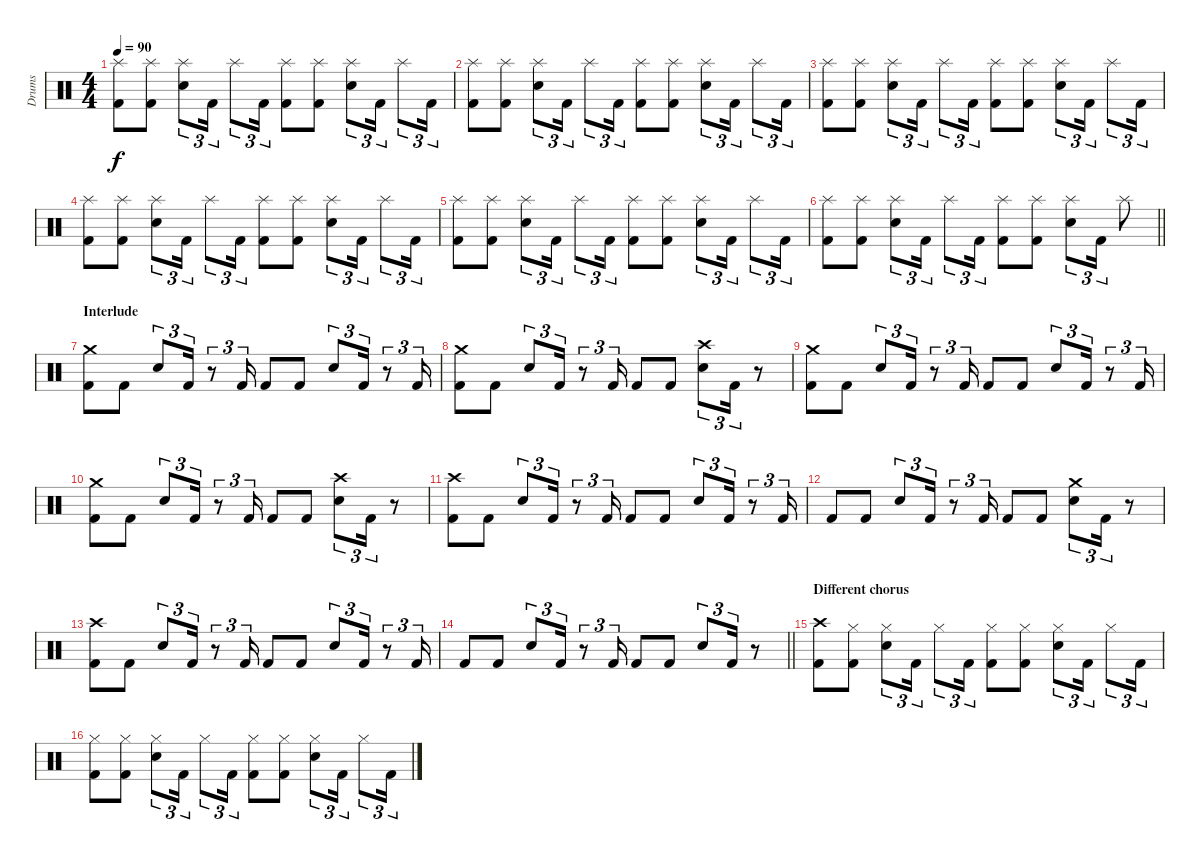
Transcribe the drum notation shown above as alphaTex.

\track ("Drums" "Drums") {instrument percussion}
\staff {score}
\articulation defaults
\ts (4 4)
\tempo 90
\clef neutral
\ks c
("Splash (hit)" "Kick (hit) 2").8{dy f} ("Splash (hit)" "Kick (hit) 2").8 ("Splash (hit)" "Electric Snare (hit)").8{tu (3 2)} "Kick (hit) 2".16{tu (3 2)} "Splash (hit)".8{tu (3 2)} "Kick (hit) 2".16{tu (3 2)} ("Splash (hit)" "Kick (hit) 2").8 ("Splash (hit)" "Kick (hit) 2").8 ("Splash (hit)" "Electric Snare (hit)").8{tu (3 2)} "Kick (hit) 2".16{tu (3 2)} "Splash (hit)".8{tu (3 2)} "Kick (hit) 2".16{tu (3 2)} |
("Splash (hit)" "Kick (hit) 2").8 ("Splash (hit)" "Kick (hit) 2").8 ("Splash (hit)" "Electric Snare (hit)").8{tu (3 2)} "Kick (hit) 2".16{tu (3 2)} "Splash (hit)".8{tu (3 2)} "Kick (hit) 2".16{tu (3 2)} ("Splash (hit)" "Kick (hit) 2").8 ("Splash (hit)" "Kick (hit) 2").8 ("Splash (hit)" "Electric Snare (hit)").8{tu (3 2)} "Kick (hit) 2".16{tu (3 2)} "Splash (hit)".8{tu (3 2)} "Kick (hit) 2".16{tu (3 2)} |
("Splash (hit)" "Kick (hit) 2").8 ("Splash (hit)" "Kick (hit) 2").8 ("Splash (hit)" "Electric Snare (hit)").8{tu (3 2)} "Kick (hit) 2".16{tu (3 2)} "Splash (hit)".8{tu (3 2)} "Kick (hit) 2".16{tu (3 2)} ("Splash (hit)" "Kick (hit) 2").8 ("Splash (hit)" "Kick (hit) 2").8 ("Splash (hit)" "Electric Snare (hit)").8{tu (3 2)} "Kick (hit) 2".16{tu (3 2)} "Splash (hit)".8{tu (3 2)} "Kick (hit) 2".16{tu (3 2)} |
("Splash (hit)" "Kick (hit) 2").8 ("Splash (hit)" "Kick (hit) 2").8 ("Splash (hit)" "Electric Snare (hit)").8{tu (3 2)} "Kick (hit) 2".16{tu (3 2)} "Splash (hit)".8{tu (3 2)} "Kick (hit) 2".16{tu (3 2)} ("Splash (hit)" "Kick (hit) 2").8 ("Splash (hit)" "Kick (hit) 2").8 ("Splash (hit)" "Electric Snare (hit)").8{tu (3 2)} "Kick (hit) 2".16{tu (3 2)} "Splash (hit)".8{tu (3 2)} "Kick (hit) 2".16{tu (3 2)} |
("Splash (hit)" "Kick (hit) 2").8 ("Splash (hit)" "Kick (hit) 2").8 ("Splash (hit)" "Electric Snare (hit)").8{tu (3 2)} "Kick (hit) 2".16{tu (3 2)} "Splash (hit)".8{tu (3 2)} "Kick (hit) 2".16{tu (3 2)} ("Splash (hit)" "Kick (hit) 2").8 ("Splash (hit)" "Kick (hit) 2").8 ("Splash (hit)" "Electric Snare (hit)").8{tu (3 2)} "Kick (hit) 2".16{tu (3 2)} "Splash (hit)".8{tu (3 2)} "Kick (hit) 2".16{tu (3 2)} |
\barLineRight lightlight
("Splash (hit)" "Kick (hit) 2").8 ("Splash (hit)" "Kick (hit) 2").8 ("Splash (hit)" "Electric Snare (hit)").8{tu (3 2)} "Kick (hit) 2".16{tu (3 2)} "Splash (hit)".8{tu (3 2)} "Kick (hit) 2".16{tu (3 2)} ("Splash (hit)" "Kick (hit) 2").8 ("Splash (hit)" "Kick (hit) 2").8 ("Splash (hit)" "Electric Snare (hit)").8{tu (3 2)} "Kick (hit) 2".16{tu (3 2)} "Splash (hit)".8 |
\section ("" "Interlude")
("Crash medium (hit)" "Kick (hit) 2").8 "Kick (hit) 2".8 "Electric Snare (hit)".8{tu (3 2)} "Kick (hit) 2".16{tu (3 2)} r.8{tu (3 2)} "Kick (hit) 2".16{tu (3 2)} "Kick (hit) 2".8 "Kick (hit) 2".8 "Electric Snare (hit)".8{tu (3 2)} "Kick (hit) 2".16{tu (3 2)} r.8{tu (3 2)} "Kick (hit) 2".16{tu (3 2)} |
("Crash medium (hit)" "Kick (hit) 2").8 "Kick (hit) 2".8 "Electric Snare (hit)".8{tu (3 2)} "Kick (hit) 2".16{tu (3 2)} r.8{tu (3 2)} "Kick (hit) 2".16{tu (3 2)} "Kick (hit) 2".8 "Kick (hit) 2".8 ("Crash high (hit)" "Electric Snare (hit)").8{tu (3 2)} "Kick (hit) 2".16{tu (3 2)} r.8 |
("Crash medium (hit)" "Kick (hit) 2").8 "Kick (hit) 2".8 "Electric Snare (hit)".8{tu (3 2)} "Kick (hit) 2".16{tu (3 2)} r.8{tu (3 2)} "Kick (hit) 2".16{tu (3 2)} "Kick (hit) 2".8 "Kick (hit) 2".8 "Electric Snare (hit)".8{tu (3 2)} "Kick (hit) 2".16{tu (3 2)} r.8{tu (3 2)} "Kick (hit) 2".16{tu (3 2)} |
("Crash medium (hit)" "Kick (hit) 2").8 "Kick (hit) 2".8 "Electric Snare (hit)".8{tu (3 2)} "Kick (hit) 2".16{tu (3 2)} r.8{tu (3 2)} "Kick (hit) 2".16{tu (3 2)} "Kick (hit) 2".8 "Kick (hit) 2".8 ("Crash high (hit)" "Electric Snare (hit)").8{tu (3 2)} "Kick (hit) 2".16{tu (3 2)} r.8 |
("Crash high (hit)" "Kick (hit) 2").8 "Kick (hit) 2".8 "Electric Snare (hit)".8{tu (3 2)} "Kick (hit) 2".16{tu (3 2)} r.8{tu (3 2)} "Kick (hit) 2".16{tu (3 2)} "Kick (hit) 2".8 "Kick (hit) 2".8 "Electric Snare (hit)".8{tu (3 2)} "Kick (hit) 2".16{tu (3 2)} r.8{tu (3 2)} "Kick (hit) 2".16{tu (3 2)} |
"Kick (hit) 2".8 "Kick (hit) 2".8 "Electric Snare (hit)".8{tu (3 2)} "Kick (hit) 2".16{tu (3 2)} r.8{tu (3 2)} "Kick (hit) 2".16{tu (3 2)} "Kick (hit) 2".8 "Kick (hit) 2".8 ("Crash medium (hit)" "Electric Snare (hit)").8{tu (3 2)} "Kick (hit) 2".16{tu (3 2)} r.8 |
("Crash high (hit)" "Kick (hit) 2").8 "Kick (hit) 2".8 "Electric Snare (hit)".8{tu (3 2)} "Kick (hit) 2".16{tu (3 2)} r.8{tu (3 2)} "Kick (hit) 2".16{tu (3 2)} "Kick (hit) 2".8 "Kick (hit) 2".8 "Electric Snare (hit)".8{tu (3 2)} "Kick (hit) 2".16{tu (3 2)} r.8{tu (3 2)} "Kick (hit) 2".16{tu (3 2)} |
\barLineRight lightlight "Kick (hit) 2".8 "Kick (hit) 2".8 "Electric Snare (hit)".8{tu (3 2)} "Kick (hit) 2".16{tu (3 2)}
r.8{tu (3 2)} "Kick (hit) 2".16{tu (3 2)} "Kick (hit) 2".8 "Kick (hit) 2".8 "Electric Snare (hit)".8{tu (3 2)} "Kick (hit) 2".16{tu (3 2)} r.8 |
\section ("" "Different chorus")
("Crash high (hit)" "Kick (hit) 2").8 ("Hi-Hat (closed)" "Kick (hit) 2").8 ("Hi-Hat (closed)" "Electric Snare (hit)").8{tu (3 2)} "Kick (hit) 2".16{tu (3 2)} "Hi-Hat (closed)".8{tu (3 2)} "Kick (hit) 2".16{tu (3 2)} ("Hi-Hat (closed)" "Kick (hit) 2").8 ("Hi-Hat (closed)" "Kick (hit) 2").8 ("Hi-Hat (closed)" "Electric Snare (hit)").8{tu (3 2)} "Kick (hit) 2".16{tu (3 2)} "Hi-Hat (closed)".8{tu (3 2)} "Kick (hit) 2".16{tu (3 2)} |
("Hi-Hat (closed)" "Kick (hit) 2").8 ("Hi-Hat (closed)" "Kick (hit) 2").8 ("Hi-Hat (closed)" "Electric Snare (hit)").8{tu (3 2)} "Kick (hit) 2".16{tu (3 2)} "Hi-Hat (closed)".8{tu (3 2)} "Kick (hit) 2".16{tu (3 2)} ("Hi-Hat (closed)" "Kick (hit) 2").8 ("Hi-Hat (closed)" "Kick (hit) 2").8 ("Hi-Hat (closed)" "Electric Snare (hit)").8{tu (3 2)} "Kick (hit) 2".16{tu (3 2)} "Hi-Hat (closed)".8{tu (3 2)} "Kick (hit) 2".16{tu (3 2)}
